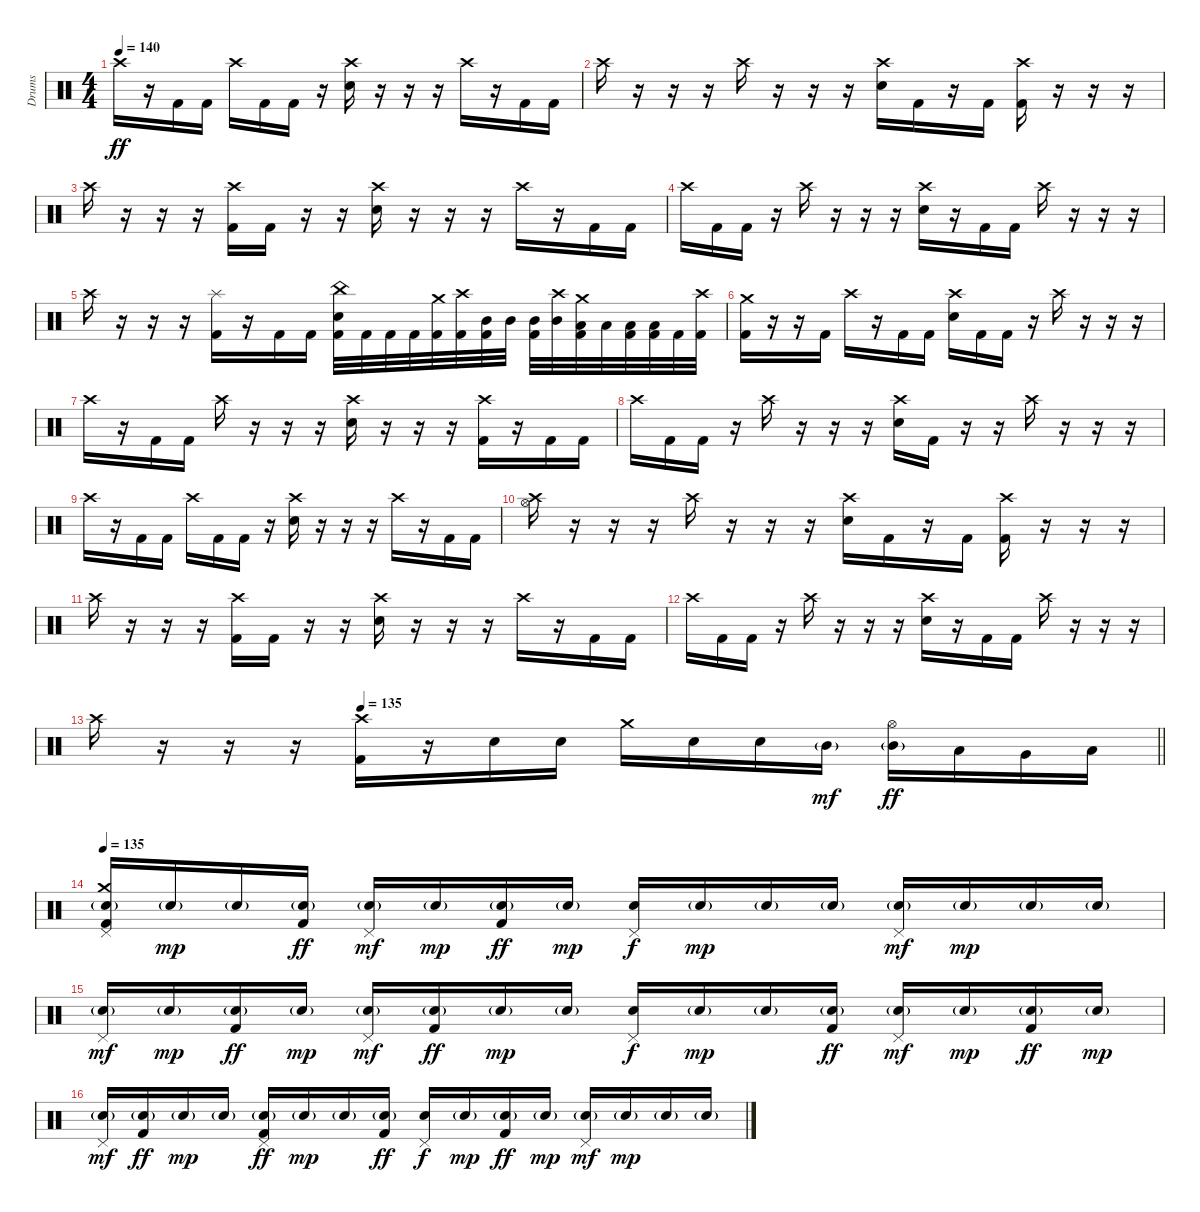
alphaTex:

\track ("Drums" "Drums") {instrument percussion}
\staff {score}
\articulation defaults
\ts (4 4)
\tempo 140
\clef neutral
\ks c "Crash high (hit)".16{dy ff}
r.16 "Kick (hit) 2".16 "Kick (hit) 2".16 "Crash high (hit)".16 "Kick (hit) 2".16 "Kick (hit) 2".16 r.16 ("Crash high (hit)" "Electric Snare (hit)").16 r.16 r.16 r.16 "Crash high (hit)".16 r.16 "Kick (hit) 2".16 "Kick (hit) 2".16 |
"Crash high (hit)".16 r.16 r.16 r.16 "Crash high (hit)".16 r.16 r.16 r.16 ("Crash high (hit)" "Electric Snare (hit)").16 "Kick (hit) 2".16 r.16 "Kick (hit) 2".16 ("Crash high (hit)" "Kick (hit) 2").16 r.16 r.16 r.16 |
"Crash high (hit)".16 r.16 r.16 r.16 ("Crash high (hit)" "Kick (hit) 2").16 "Kick (hit) 2".16 r.16 r.16 ("Crash high (hit)" "Electric Snare (hit)").16 r.16 r.16 r.16 "Crash high (hit)".16 r.16 "Kick (hit) 2".16 "Kick (hit) 2".16 |
"Crash high (hit)".16 "Kick (hit) 2".16 "Kick (hit) 2".16 r.16 "Crash high (hit)".16 r.16 r.16 r.16 ("Crash high (hit)" "Electric Snare (hit)").16 r.16 "Kick (hit) 2".16 "Kick (hit) 2".16 "Crash high (hit)".16 r.16 r.16 r.16 |
"Crash high (hit)".16 r.16 r.16 r.16 ("Splash (hit)" "Kick (hit) 2").16 r.16 "Kick (hit) 2".16 "Kick (hit) 2".16 ("China (hit)" "Electric Snare (hit)" "Kick (hit) 2").32 "Kick (hit) 2".32 "Kick (hit) 2".32 "Kick (hit) 2".32 ("Crash medium (hit)" "Kick (hit) 2").32 ("Crash high (hit)" "Kick (hit) 2").32 ("Mid Tom (hit)" "Kick (hit) 2").32 "Mid Tom (hit)".32 ("Mid Tom (hit)" "Kick (hit) 2").32 ("Crash high (hit)" "Mid Tom (hit)").32 ("Crash medium (hit)" "Low Tom (hit)" "Kick (hit) 2").32 "Low Tom (hit)".32 ("Low Tom (hit)" "Kick (hit) 2").32 ("Low Tom (hit)" "Kick (hit) 2").32 "Kick (hit) 2".32 ("Crash high (hit)" "Kick (hit) 2").32 |
("Crash medium (hit)" "Kick (hit) 2").16 r.16 r.16 "Kick (hit) 2".16 "Crash high (hit)".16 r.16 "Kick (hit) 2".16 "Kick (hit) 2".16 ("Crash high (hit)" "Electric Snare (hit)").16 "Kick (hit) 2".16 "Kick (hit) 2".16 r.16 "Crash high (hit)".16 r.16 r.16 r.16 |
"Crash high (hit)".16 r.16 "Kick (hit) 2".16 "Kick (hit) 2".16 "Crash high (hit)".16 r.16 r.16 r.16 ("Crash high (hit)" "Electric Snare (hit)").16 r.16 r.16 r.16 ("Crash high (hit)" "Kick (hit) 2").16 r.16 "Kick (hit) 2".16 "Kick (hit) 2".16 |
"Crash high (hit)".16 "Kick (hit) 2".16 "Kick (hit) 2".16 r.16 "Crash high (hit)".16 r.16 r.16 r.16 ("Crash high (hit)" "Electric Snare (hit)").16 "Kick (hit) 2".16 r.16 r.16 "Crash high (hit)".16 r.16 r.16 r.16 |
"Crash high (hit)".16 r.16 "Kick (hit) 2".16 "Kick (hit) 2".16 "Crash high (hit)".16 "Kick (hit) 2".16 "Kick (hit) 2".16 r.16 ("Crash high (hit)" "Electric Snare (hit)").16 r.16 r.16 r.16 "Crash high (hit)".16 r.16 "Kick (hit) 2".16 "Kick (hit) 2".16 |
("Crash high (hit)" "Hi-Hat (open)").16 r.16 r.16 r.16 "Crash high (hit)".16 r.16 r.16 r.16 ("Crash high (hit)" "Electric Snare (hit)").16 "Kick (hit) 2".16 r.16 "Kick (hit) 2".16 ("Crash high (hit)" "Kick (hit) 2").16 r.16 r.16 r.16 |
"Crash high (hit)".16 r.16 r.16 r.16 ("Crash high (hit)" "Kick (hit) 2").16 "Kick (hit) 2".16 r.16 r.16 ("Crash high (hit)" "Electric Snare (hit)").16 r.16 r.16 r.16 "Crash high (hit)".16 r.16 "Kick (hit) 2".16 "Kick (hit) 2".16 |
"Crash high (hit)".16 "Kick (hit) 2".16 "Kick (hit) 2".16 r.16 "Crash high (hit)".16 r.16 r.16 r.16 ("Crash high (hit)" "Electric Snare (hit)").16 r.16 "Kick (hit) 2".16 "Kick (hit) 2".16 "Crash high (hit)".16 r.16 r.16 r.16 |
\tempo (135 0.25)
\barLineRight lightlight "Crash high (hit)".16
r.16 r.16 r.16 ("Crash high (hit)" "Kick (hit) 2").16 r.16 "Electric Snare (hit)".16 "Electric Snare (hit)".16 "Crash medium (hit)".16 "Electric Snare (hit)".16 "Electric Snare (hit)".16 "Mid Tom (hit)"{g}.16{dy mf} ("Mid Tom (hit)"{g} "Hi-Hat (open)").16{dy ff} "Low Tom (hit)".16 "Very Low Tom (hit)".16 "Low Floor Tom (hit)".16 |
\section ("" "")
\tempo 135
("Crash medium (hit)" "Pedal Hi-Hat (hit)" "Electric Snare (hit)"{g} "Kick (hit) 2").16 "Electric Snare (hit)"{g}.16{dy mp} "Electric Snare (hit)"{g}.16 ("Electric Snare (hit)"{g} "Kick (hit) 2").16{dy ff} ("Pedal Hi-Hat (hit)" "Electric Snare (hit)"{g}).16{dy mf} "Electric Snare (hit)"{g}.16{dy mp} ("Electric Snare (hit)"{g} "Kick (hit) 2").16{dy ff} "Electric Snare (hit)"{g}.16{dy mp} ("Pedal Hi-Hat (hit)" "Electric Snare (hit)").16{dy f} "Electric Snare (hit)"{g}.16{dy mp} "Electric Snare (hit)"{g}.16 "Electric Snare (hit)"{g}.16 ("Pedal Hi-Hat (hit)" "Electric Snare (hit)"{g}).16{dy mf} "Electric Snare (hit)"{g}.16{dy mp} "Electric Snare (hit)"{g}.16 "Electric Snare (hit)"{g}.16 |
("Pedal Hi-Hat (hit)" "Electric Snare (hit)"{g}).16{dy mf} "Electric Snare (hit)"{g}.16{dy mp} ("Electric Snare (hit)"{g} "Kick (hit) 2").16{dy ff} "Electric Snare (hit)"{g}.16{dy mp} ("Pedal Hi-Hat (hit)" "Electric Snare (hit)"{g}).16{dy mf} ("Electric Snare (hit)"{g} "Kick (hit) 2").16{dy ff} "Electric Snare (hit)"{g}.16{dy mp} "Electric Snare (hit)"{g}.16 ("Pedal Hi-Hat (hit)" "Electric Snare (hit)").16{dy f} "Electric Snare (hit)"{g}.16{dy mp} "Electric Snare (hit)"{g}.16 ("Electric Snare (hit)"{g} "Kick (hit) 2").16{dy ff} ("Pedal Hi-Hat (hit)" "Electric Snare (hit)"{g}).16{dy mf} "Electric Snare (hit)"{g}.16{dy mp} ("Electric Snare (hit)"{g} "Kick (hit) 2").16{dy ff} "Electric Snare (hit)"{g}.16{dy mp} |
("Pedal Hi-Hat (hit)" "Electric Snare (hit)"{g}).16{dy mf} ("Electric Snare (hit)"{g} "Kick (hit) 2").16{dy ff} "Electric Snare (hit)"{g}.16{dy mp} "Electric Snare (hit)"{g}.16 ("Pedal Hi-Hat (hit)" "Electric Snare (hit)"{g} "Kick (hit) 2").16{dy ff} "Electric Snare (hit)"{g}.16{dy mp} "Electric Snare (hit)"{g}.16 ("Electric Snare (hit)"{g} "Kick (hit) 2").16{dy ff} ("Pedal Hi-Hat (hit)" "Electric Snare (hit)").16{dy f} "Electric Snare (hit)"{g}.16{dy mp} ("Electric Snare (hit)"{g} "Kick (hit) 2").16{dy ff} "Electric Snare (hit)"{g}.16{dy mp} ("Pedal Hi-Hat (hit)" "Electric Snare (hit)"{g}).16{dy mf} "Electric Snare (hit)"{g}.16{dy mp} "Electric Snare (hit)"{g}.16 "Electric Snare (hit)"{g}.16
